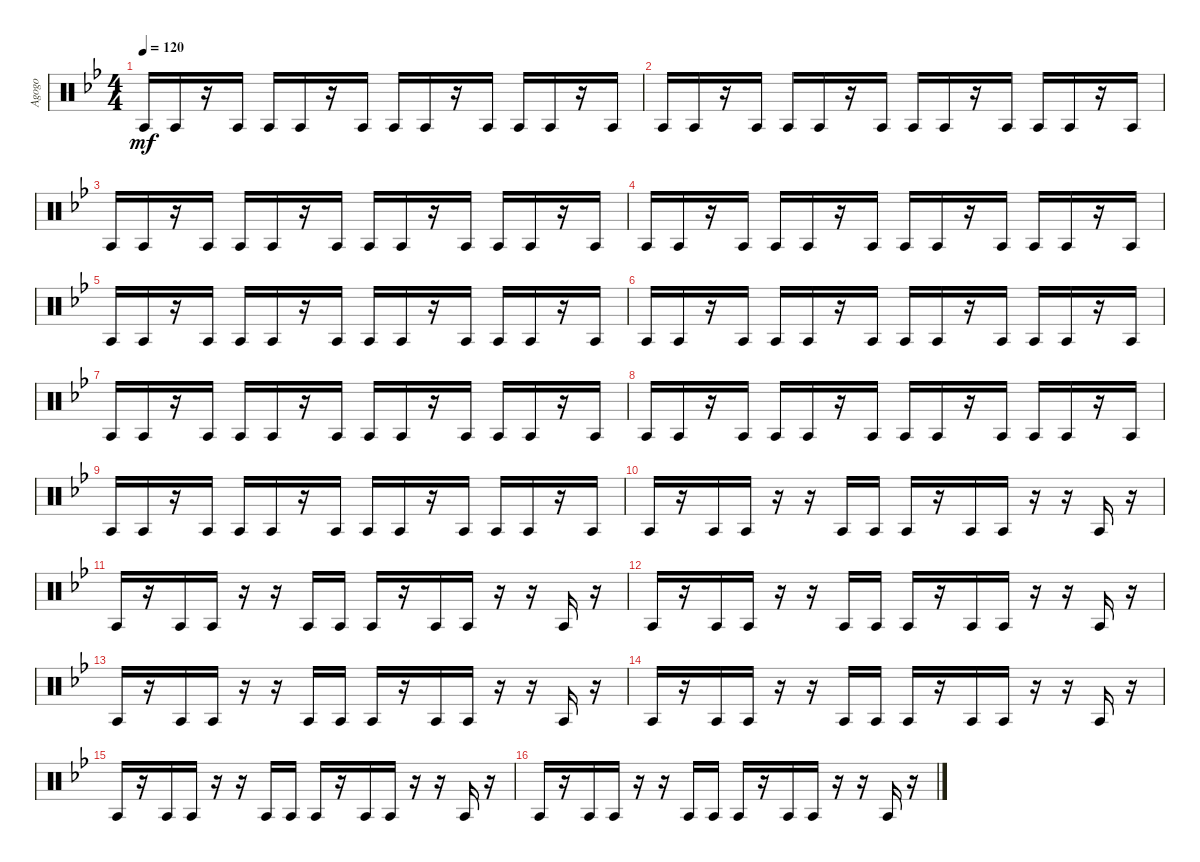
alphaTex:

\track ("Agogo" "Agogo") {instrument percussion}
\staff {score}
\articulation defaults
\ts (4 4)
\tempo 120
\clef neutral
\ks bb "Agogo tow (hit)".16{dy mf} "Agogo tow (hit)".16
r.16 "Agogo tow (hit)".16 "Agogo tow (hit)".16 "Agogo tow (hit)".16 r.16 "Agogo tow (hit)".16 "Agogo tow (hit)".16 "Agogo tow (hit)".16 r.16 "Agogo tow (hit)".16 "Agogo tow (hit)".16 "Agogo tow (hit)".16 r.16 "Agogo tow (hit)".16 |
"Agogo tow (hit)".16 "Agogo tow (hit)".16 r.16 "Agogo tow (hit)".16 "Agogo tow (hit)".16 "Agogo tow (hit)".16 r.16 "Agogo tow (hit)".16 "Agogo tow (hit)".16 "Agogo tow (hit)".16 r.16 "Agogo tow (hit)".16 "Agogo tow (hit)".16 "Agogo tow (hit)".16 r.16 "Agogo tow (hit)".16 |
"Agogo tow (hit)".16 "Agogo tow (hit)".16 r.16 "Agogo tow (hit)".16 "Agogo tow (hit)".16 "Agogo tow (hit)".16 r.16 "Agogo tow (hit)".16 "Agogo tow (hit)".16 "Agogo tow (hit)".16 r.16 "Agogo tow (hit)".16 "Agogo tow (hit)".16 "Agogo tow (hit)".16 r.16 "Agogo tow (hit)".16 |
"Agogo tow (hit)".16 "Agogo tow (hit)".16 r.16 "Agogo tow (hit)".16 "Agogo tow (hit)".16 "Agogo tow (hit)".16 r.16 "Agogo tow (hit)".16 "Agogo tow (hit)".16 "Agogo tow (hit)".16 r.16 "Agogo tow (hit)".16 "Agogo tow (hit)".16 "Agogo tow (hit)".16 r.16 "Agogo tow (hit)".16 |
"Agogo tow (hit)".16 "Agogo tow (hit)".16 r.16 "Agogo tow (hit)".16 "Agogo tow (hit)".16 "Agogo tow (hit)".16 r.16 "Agogo tow (hit)".16 "Agogo tow (hit)".16 "Agogo tow (hit)".16 r.16 "Agogo tow (hit)".16 "Agogo tow (hit)".16 "Agogo tow (hit)".16 r.16 "Agogo tow (hit)".16 |
"Agogo tow (hit)".16 "Agogo tow (hit)".16 r.16 "Agogo tow (hit)".16 "Agogo tow (hit)".16 "Agogo tow (hit)".16 r.16 "Agogo tow (hit)".16 "Agogo tow (hit)".16 "Agogo tow (hit)".16 r.16 "Agogo tow (hit)".16 "Agogo tow (hit)".16 "Agogo tow (hit)".16 r.16 "Agogo tow (hit)".16 |
"Agogo tow (hit)".16 "Agogo tow (hit)".16 r.16 "Agogo tow (hit)".16 "Agogo tow (hit)".16 "Agogo tow (hit)".16 r.16 "Agogo tow (hit)".16 "Agogo tow (hit)".16 "Agogo tow (hit)".16 r.16 "Agogo tow (hit)".16 "Agogo tow (hit)".16 "Agogo tow (hit)".16 r.16 "Agogo tow (hit)".16 |
"Agogo tow (hit)".16 "Agogo tow (hit)".16 r.16 "Agogo tow (hit)".16 "Agogo tow (hit)".16 "Agogo tow (hit)".16 r.16 "Agogo tow (hit)".16 "Agogo tow (hit)".16 "Agogo tow (hit)".16 r.16 "Agogo tow (hit)".16 "Agogo tow (hit)".16 "Agogo tow (hit)".16 r.16 "Agogo tow (hit)".16 |
"Agogo tow (hit)".16 "Agogo tow (hit)".16 r.16 "Agogo tow (hit)".16 "Agogo tow (hit)".16 "Agogo tow (hit)".16 r.16 "Agogo tow (hit)".16 "Agogo tow (hit)".16 "Agogo tow (hit)".16 r.16 "Agogo tow (hit)".16 "Agogo tow (hit)".16 "Agogo tow (hit)".16 r.16 "Agogo tow (hit)".16 |
"Agogo tow (hit)".16 r.16 "Agogo tow (hit)".16 "Agogo tow (hit)".16 r.16 r.16 "Agogo tow (hit)".16 "Agogo tow (hit)".16 "Agogo tow (hit)".16 r.16 "Agogo tow (hit)".16 "Agogo tow (hit)".16 r.16 r.16 "Agogo tow (hit)".16 r.16 |
"Agogo tow (hit)".16 r.16 "Agogo tow (hit)".16 "Agogo tow (hit)".16 r.16 r.16 "Agogo tow (hit)".16 "Agogo tow (hit)".16 "Agogo tow (hit)".16 r.16 "Agogo tow (hit)".16 "Agogo tow (hit)".16 r.16 r.16 "Agogo tow (hit)".16 r.16 |
"Agogo tow (hit)".16 r.16 "Agogo tow (hit)".16 "Agogo tow (hit)".16 r.16 r.16 "Agogo tow (hit)".16 "Agogo tow (hit)".16 "Agogo tow (hit)".16 r.16 "Agogo tow (hit)".16 "Agogo tow (hit)".16 r.16 r.16 "Agogo tow (hit)".16 r.16 |
"Agogo tow (hit)".16 r.16 "Agogo tow (hit)".16 "Agogo tow (hit)".16 r.16 r.16 "Agogo tow (hit)".16 "Agogo tow (hit)".16 "Agogo tow (hit)".16 r.16 "Agogo tow (hit)".16 "Agogo tow (hit)".16 r.16 r.16 "Agogo tow (hit)".16 r.16 |
"Agogo tow (hit)".16 r.16 "Agogo tow (hit)".16 "Agogo tow (hit)".16 r.16 r.16 "Agogo tow (hit)".16 "Agogo tow (hit)".16 "Agogo tow (hit)".16 r.16 "Agogo tow (hit)".16 "Agogo tow (hit)".16 r.16 r.16 "Agogo tow (hit)".16 r.16 |
"Agogo tow (hit)".16 r.16 "Agogo tow (hit)".16 "Agogo tow (hit)".16 r.16 r.16 "Agogo tow (hit)".16 "Agogo tow (hit)".16 "Agogo tow (hit)".16 r.16 "Agogo tow (hit)".16 "Agogo tow (hit)".16 r.16 r.16 "Agogo tow (hit)".16 r.16 |
"Agogo tow (hit)".16 r.16 "Agogo tow (hit)".16 "Agogo tow (hit)".16 r.16 r.16 "Agogo tow (hit)".16 "Agogo tow (hit)".16 "Agogo tow (hit)".16 r.16 "Agogo tow (hit)".16 "Agogo tow (hit)".16 r.16 r.16 "Agogo tow (hit)".16 r.16
